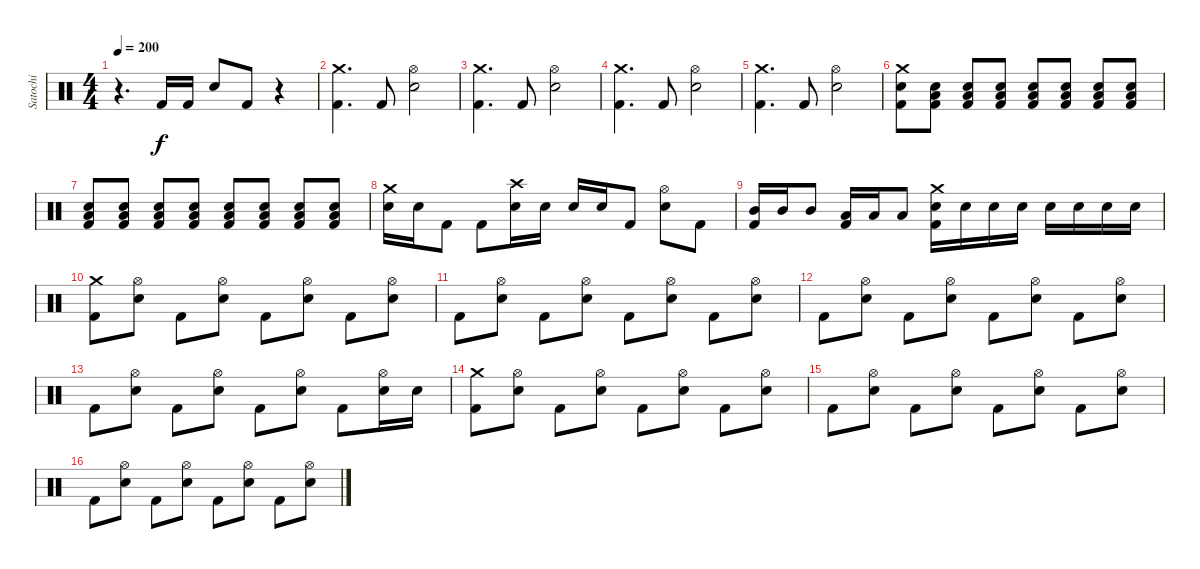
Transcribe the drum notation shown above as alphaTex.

\track ("Satochi" "Satochi") {instrument percussion}
\staff {score}
\articulation defaults
\ts (4 4)
\tempo 200
\clef neutral
\ks c
r.4{d dy f} "Kick (hit) 2".16 "Kick (hit) 2".16 "Electric Snare (hit)".8 "Kick (hit) 2".8 r.4 |
("Crash medium (hit)" "Kick (hit) 2").4{d} "Kick (hit) 2".8 ("Hi-Hat (open)" "Electric Snare (hit)").2 |
("Crash medium (hit)" "Kick (hit) 2").4{d} "Kick (hit) 2".8 ("Hi-Hat (open)" "Electric Snare (hit)").2 |
("Crash medium (hit)" "Kick (hit) 2").4{d} "Kick (hit) 2".8 ("Hi-Hat (open)" "Electric Snare (hit)").2 |
("Crash medium (hit)" "Kick (hit) 2").4{d} "Kick (hit) 2".8 ("Hi-Hat (open)" "Electric Snare (hit)").2 |
("Crash medium (hit)" "Electric Snare (hit)" "Kick (hit) 2").8 ("Low Tom (hit)" "Electric Snare (hit)" "Kick (hit) 2").8{volume 2} ("Low Tom (hit)" "Electric Snare (hit)" "Kick (hit) 2").8{volume 16} ("Low Tom (hit)" "Electric Snare (hit)" "Kick (hit) 2").8 ("Low Tom (hit)" "Electric Snare (hit)" "Kick (hit) 2").8 ("Low Tom (hit)" "Electric Snare (hit)" "Kick (hit) 2").8 ("Low Tom (hit)" "Electric Snare (hit)" "Kick (hit) 2").8 ("Low Tom (hit)" "Electric Snare (hit)" "Kick (hit) 2").8 |
("Low Tom (hit)" "Electric Snare (hit)" "Kick (hit) 2").8 ("Low Tom (hit)" "Electric Snare (hit)" "Kick (hit) 2").8 ("Low Tom (hit)" "Electric Snare (hit)" "Kick (hit) 2").8 ("Low Tom (hit)" "Electric Snare (hit)" "Kick (hit) 2").8 ("Low Tom (hit)" "Electric Snare (hit)" "Kick (hit) 2").8 ("Low Tom (hit)" "Electric Snare (hit)" "Kick (hit) 2").8 ("Low Tom (hit)" "Electric Snare (hit)" "Kick (hit) 2").8 ("Low Tom (hit)" "Electric Snare (hit)" "Kick (hit) 2").8 |
("Crash medium (hit)" "Electric Snare (hit)").16 "Electric Snare (hit)".16 "Kick (hit) 2".8 "Kick (hit) 2".8 ("Crash high (hit)" "Electric Snare (hit)").16 "Electric Snare (hit)".16 "Electric Snare (hit)".16 "Electric Snare (hit)".16 "Kick (hit) 2".8 ("Hi-Hat (open)" "Electric Snare (hit)").8 "Kick (hit) 2".8 |
("Mid Tom (hit)" "Kick (hit) 2").16 "Mid Tom (hit)".16 "Mid Tom (hit)".8 ("Low Tom (hit)" "Kick (hit) 2").16 "Low Tom (hit)".16 "Low Tom (hit)".8 ("Crash medium (hit)" "Electric Snare (hit)" "Kick (hit) 2").16 "Electric Snare (hit)".16 "Electric Snare (hit)".16 "Electric Snare (hit)".16 "Electric Snare (hit)".16 "Electric Snare (hit)".16 "Electric Snare (hit)".16 "Electric Snare (hit)".16 |
("Crash medium (hit)" "Kick (hit) 2").8 ("Hi-Hat (open)" "Electric Snare (hit)").8 "Kick (hit) 2".8 ("Hi-Hat (open)" "Electric Snare (hit)").8 "Kick (hit) 2".8 ("Hi-Hat (open)" "Electric Snare (hit)").8 "Kick (hit) 2".8 ("Hi-Hat (open)" "Electric Snare (hit)").8 |
"Kick (hit) 2".8 ("Hi-Hat (open)" "Electric Snare (hit)").8 "Kick (hit) 2".8 ("Hi-Hat (open)" "Electric Snare (hit)").8 "Kick (hit) 2".8 ("Hi-Hat (open)" "Electric Snare (hit)").8 "Kick (hit) 2".8 ("Hi-Hat (open)" "Electric Snare (hit)").8 |
"Kick (hit) 2".8 ("Hi-Hat (open)" "Electric Snare (hit)").8 "Kick (hit) 2".8 ("Hi-Hat (open)" "Electric Snare (hit)").8 "Kick (hit) 2".8 ("Hi-Hat (open)" "Electric Snare (hit)").8 "Kick (hit) 2".8 ("Hi-Hat (open)" "Electric Snare (hit)").8 |
"Kick (hit) 2".8 ("Hi-Hat (open)" "Electric Snare (hit)").8 "Kick (hit) 2".8 ("Hi-Hat (open)" "Electric Snare (hit)").8 "Kick (hit) 2".8 ("Hi-Hat (open)" "Electric Snare (hit)").8 "Kick (hit) 2".8 ("Hi-Hat (open)" "Electric Snare (hit)").16 "Electric Snare (hit)".16 |
("Crash medium (hit)" "Kick (hit) 2").8 ("Hi-Hat (open)" "Electric Snare (hit)").8 "Kick (hit) 2".8 ("Hi-Hat (open)" "Electric Snare (hit)").8 "Kick (hit) 2".8 ("Hi-Hat (open)" "Electric Snare (hit)").8 "Kick (hit) 2".8 ("Hi-Hat (open)" "Electric Snare (hit)").8 |
"Kick (hit) 2".8 ("Hi-Hat (open)" "Electric Snare (hit)").8 "Kick (hit) 2".8 ("Hi-Hat (open)" "Electric Snare (hit)").8 "Kick (hit) 2".8 ("Hi-Hat (open)" "Electric Snare (hit)").8 "Kick (hit) 2".8 ("Hi-Hat (open)" "Electric Snare (hit)").8 |
"Kick (hit) 2".8 ("Hi-Hat (open)" "Electric Snare (hit)").8 "Kick (hit) 2".8 ("Hi-Hat (open)" "Electric Snare (hit)").8 "Kick (hit) 2".8 ("Hi-Hat (open)" "Electric Snare (hit)").8 "Kick (hit) 2".8 ("Hi-Hat (open)" "Electric Snare (hit)").8
